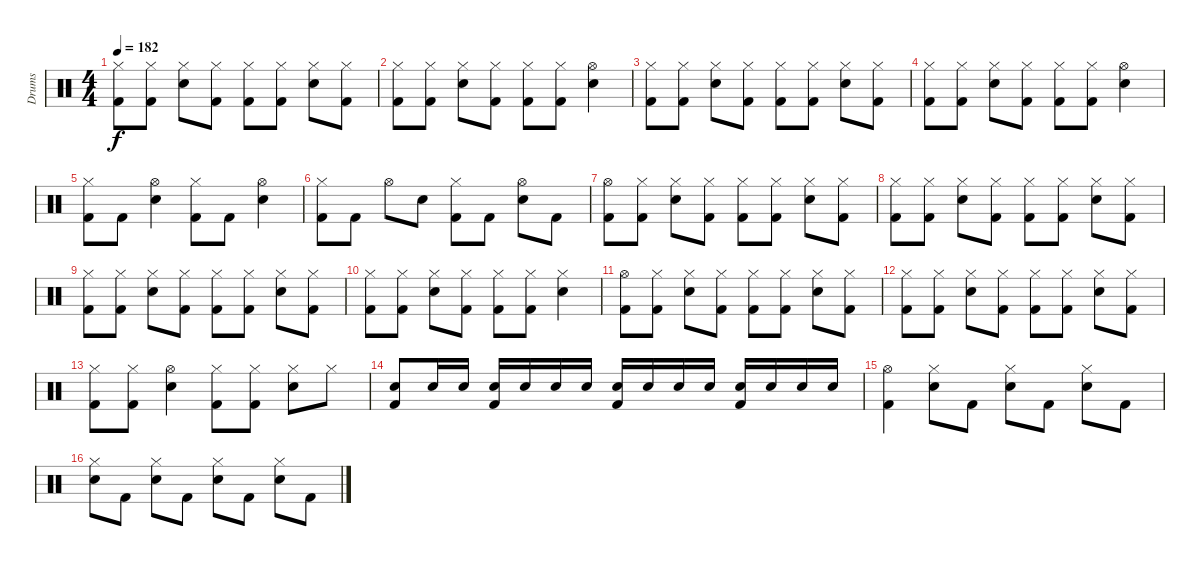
\track ("Drums" "Drums") {instrument percussion}
\staff {score}
\articulation defaults
\ts (4 4)
\tempo 182
\clef neutral
\ks c
("Kick (hit) 2" "Hi-Hat (closed)").8{dy f} ("Kick (hit) 2" "Hi-Hat (closed)").8 ("Snare (hit) 2" "Hi-Hat (closed)").8 ("Kick (hit) 2" "Hi-Hat (closed)").8 ("Kick (hit) 2" "Hi-Hat (closed)").8 ("Kick (hit) 2" "Hi-Hat (closed)").8 ("Snare (hit) 2" "Hi-Hat (closed)").8 ("Kick (hit) 2" "Hi-Hat (closed)").8 |
("Kick (hit) 2" "Hi-Hat (closed)").8 ("Kick (hit) 2" "Hi-Hat (closed)").8 ("Snare (hit) 2" "Hi-Hat (closed)").8 ("Kick (hit) 2" "Hi-Hat (closed)").8 ("Kick (hit) 2" "Hi-Hat (closed)").8 ("Kick (hit) 2" "Hi-Hat (closed)").8 ("Snare (hit) 2" "Hi-Hat (open)").4 |
("Kick (hit) 2" "Hi-Hat (closed)").8 ("Kick (hit) 2" "Hi-Hat (closed)").8 ("Snare (hit) 2" "Hi-Hat (closed)").8 ("Kick (hit) 2" "Hi-Hat (closed)").8 ("Kick (hit) 2" "Hi-Hat (closed)").8 ("Kick (hit) 2" "Hi-Hat (closed)").8 ("Snare (hit) 2" "Hi-Hat (closed)").8 ("Kick (hit) 2" "Hi-Hat (closed)").8 |
("Kick (hit) 2" "Hi-Hat (closed)").8 ("Kick (hit) 2" "Hi-Hat (closed)").8 ("Snare (hit) 2" "Hi-Hat (closed)").8 ("Kick (hit) 2" "Hi-Hat (closed)").8 ("Kick (hit) 2" "Hi-Hat (closed)").8 ("Kick (hit) 2" "Hi-Hat (closed)").8 ("Snare (hit) 2" "Hi-Hat (open)").4 |
("Kick (hit) 2" "Hi-Hat (closed)").8 "Kick (hit) 2".8 ("Snare (hit) 2" "Hi-Hat (open)").4 ("Kick (hit) 2" "Hi-Hat (closed)").8 "Kick (hit) 2".8 ("Snare (hit) 2" "Hi-Hat (open)").4 |
("Kick (hit) 2" "Hi-Hat (closed)").8 "Kick (hit) 2".8 "Hi-Hat (open)".8 "Snare (hit) 2".8 ("Kick (hit) 2" "Hi-Hat (closed)").8 "Kick (hit) 2".8 ("Snare (hit) 2" "Hi-Hat (open)").8 "Kick (hit) 2".8 |
("Kick (hit) 2" "Hi-Hat (open)").8 ("Kick (hit) 2" "Hi-Hat (closed)").8 ("Snare (hit) 2" "Hi-Hat (closed)").8 ("Kick (hit) 2" "Hi-Hat (closed)").8 ("Kick (hit) 2" "Hi-Hat (closed)").8 ("Kick (hit) 2" "Hi-Hat (closed)").8 ("Snare (hit) 2" "Hi-Hat (closed)").8 ("Kick (hit) 2" "Hi-Hat (closed)").8 |
("Kick (hit) 2" "Hi-Hat (closed)").8 ("Kick (hit) 2" "Hi-Hat (closed)").8 ("Snare (hit) 2" "Hi-Hat (closed)").8 ("Kick (hit) 2" "Hi-Hat (closed)").8 ("Kick (hit) 2" "Hi-Hat (closed)").8 ("Kick (hit) 2" "Hi-Hat (closed)").8 ("Snare (hit) 2" "Hi-Hat (closed)").8 ("Kick (hit) 2" "Hi-Hat (closed)").8 |
("Kick (hit) 2" "Hi-Hat (closed)").8 ("Kick (hit) 2" "Hi-Hat (closed)").8 ("Snare (hit) 2" "Hi-Hat (closed)").8 ("Kick (hit) 2" "Hi-Hat (closed)").8 ("Kick (hit) 2" "Hi-Hat (closed)").8 ("Kick (hit) 2" "Hi-Hat (closed)").8 ("Snare (hit) 2" "Hi-Hat (closed)").8 ("Kick (hit) 2" "Hi-Hat (closed)").8 |
("Kick (hit) 2" "Hi-Hat (closed)").8 ("Kick (hit) 2" "Hi-Hat (closed)").8 ("Snare (hit) 2" "Hi-Hat (closed)").8 ("Kick (hit) 2" "Hi-Hat (closed)").8 ("Kick (hit) 2" "Hi-Hat (closed)").8 ("Kick (hit) 2" "Hi-Hat (closed)").8 ("Hi-Hat (closed)" "Snare (hit) 2").4 |
("Kick (hit) 2" "Hi-Hat (open)").8 ("Kick (hit) 2" "Hi-Hat (closed)").8 ("Snare (hit) 2" "Hi-Hat (closed)").8 ("Kick (hit) 2" "Hi-Hat (closed)").8 ("Kick (hit) 2" "Hi-Hat (closed)").8 ("Kick (hit) 2" "Hi-Hat (closed)").8 ("Snare (hit) 2" "Hi-Hat (closed)").8 ("Kick (hit) 2" "Hi-Hat (closed)").8 |
("Kick (hit) 2" "Hi-Hat (closed)").8 ("Kick (hit) 2" "Hi-Hat (closed)").8 ("Snare (hit) 2" "Hi-Hat (closed)").8 ("Kick (hit) 2" "Hi-Hat (closed)").8 ("Kick (hit) 2" "Hi-Hat (closed)").8 ("Kick (hit) 2" "Hi-Hat (closed)").8 ("Snare (hit) 2" "Hi-Hat (closed)").8 ("Kick (hit) 2" "Hi-Hat (closed)").8 |
("Kick (hit) 2" "Hi-Hat (closed)").8 ("Kick (hit) 2" "Hi-Hat (closed)").8 ("Snare (hit) 2" "Hi-Hat (open)").4 ("Kick (hit) 2" "Hi-Hat (closed)").8 ("Kick (hit) 2" "Hi-Hat (closed)").8 ("Snare (hit) 2" "Hi-Hat (closed)").8 "Hi-Hat (closed)".8 |
("Snare (hit) 2" "Kick (hit) 2").8 "Snare (hit) 2".16 "Snare (hit) 2".16 ("Snare (hit) 2" "Kick (hit) 2").16 "Snare (hit) 2".16 "Snare (hit) 2".16 "Snare (hit) 2".16 ("Snare (hit) 2" "Kick (hit) 2").16 "Snare (hit) 2".16 "Snare (hit) 2".16 "Snare (hit) 2".16 ("Snare (hit) 2" "Kick (hit) 2").16 "Snare (hit) 2".16 "Snare (hit) 2".16 "Snare (hit) 2".16 |
("Kick (hit) 2" "Hi-Hat (open)").4 ("Hi-Hat (closed)" "Snare (hit) 2").8 "Kick (hit) 2".8 ("Hi-Hat (closed)" "Snare (hit) 2").8 "Kick (hit) 2".8 ("Hi-Hat (closed)" "Snare (hit) 2").8 "Kick (hit) 2".8 |
("Snare (hit) 2" "Hi-Hat (closed)").8 "Kick (hit) 2".8 ("Snare (hit) 2" "Hi-Hat (closed)").8 "Kick (hit) 2".8 ("Snare (hit) 2" "Hi-Hat (closed)").8 "Kick (hit) 2".8 ("Snare (hit) 2" "Hi-Hat (closed)").8 "Kick (hit) 2".8
